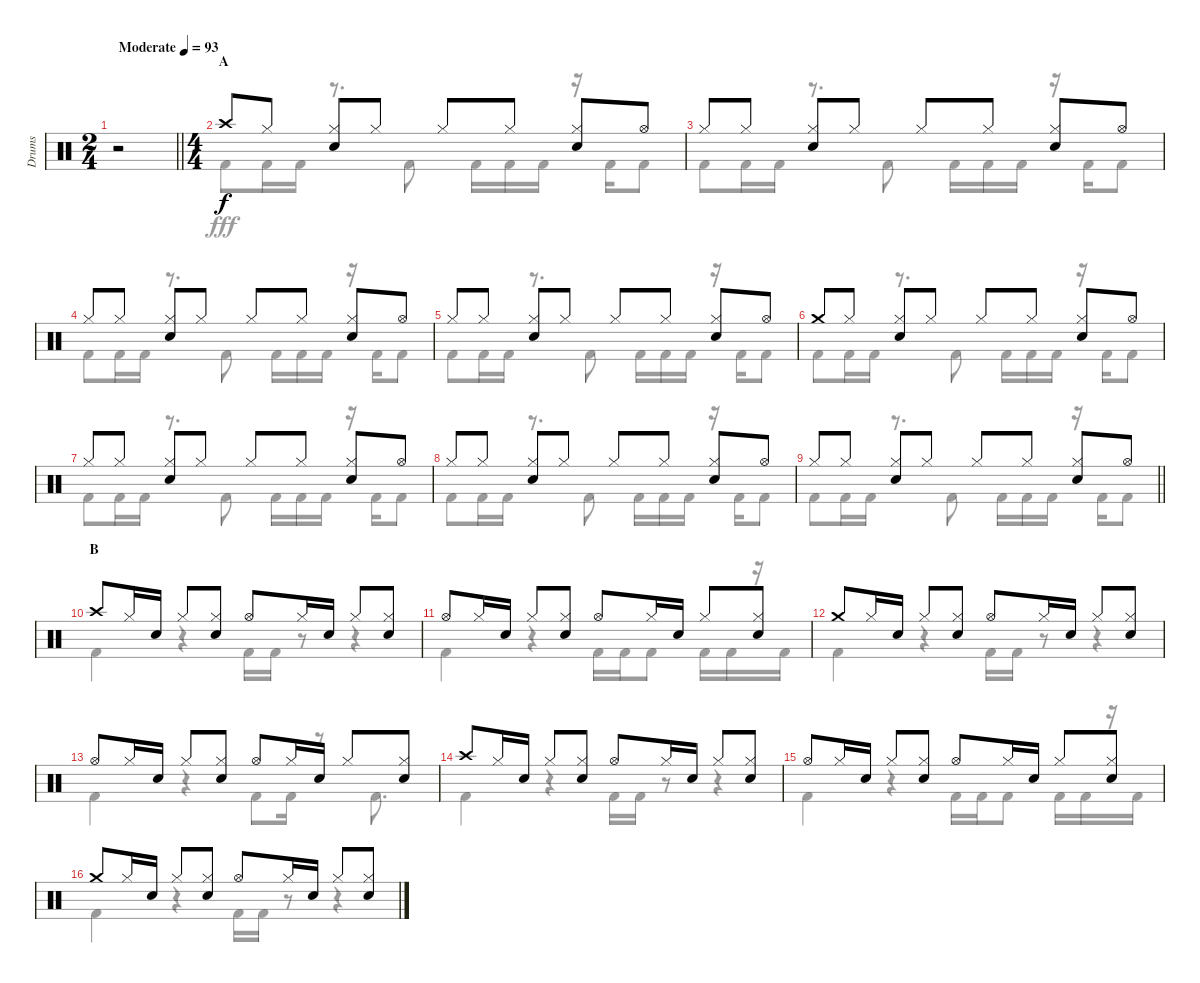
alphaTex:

\track ("Drums" "Drums") {instrument percussion}
\staff {score}
\articulation defaults
\voice
\ts (2 4)
\tempo (93 "Moderate")
\clef neutral
\barLineRight lightlight
\ks c
r.2{dy f} |
\ts (4 4)
\section ("" "A")
"Crash high (hit)".8 "Hi-Hat (closed)".8 ("Hi-Hat (closed)" "Snare (hit) 2").8 "Hi-Hat (closed)".8 "Hi-Hat (closed)".8 "Hi-Hat (closed)".8 ("Hi-Hat (closed)" "Snare (hit) 2").8 "Hi-Hat (open)".8 |
"Hi-Hat (closed)".8 "Hi-Hat (closed)".8 ("Hi-Hat (closed)" "Snare (hit) 2").8 "Hi-Hat (closed)".8 "Hi-Hat (closed)".8 "Hi-Hat (closed)".8 ("Hi-Hat (closed)" "Snare (hit) 2").8 "Hi-Hat (open)".8 |
"Hi-Hat (closed)".8 "Hi-Hat (closed)".8 ("Hi-Hat (closed)" "Snare (hit) 2").8 "Hi-Hat (closed)".8 "Hi-Hat (closed)".8 "Hi-Hat (closed)".8 ("Hi-Hat (closed)" "Snare (hit) 2").8 "Hi-Hat (open)".8 |
"Hi-Hat (closed)".8 "Hi-Hat (closed)".8 ("Hi-Hat (closed)" "Snare (hit) 2").8 "Hi-Hat (closed)".8 "Hi-Hat (closed)".8 "Hi-Hat (closed)".8 ("Hi-Hat (closed)" "Snare (hit) 2").8 "Hi-Hat (open)".8 |
"Crash medium (hit)".8 "Hi-Hat (closed)".8 ("Hi-Hat (closed)" "Snare (hit) 2").8 "Hi-Hat (closed)".8 "Hi-Hat (closed)".8 "Hi-Hat (closed)".8 ("Hi-Hat (closed)" "Snare (hit) 2").8 "Hi-Hat (open)".8 |
"Hi-Hat (closed)".8 "Hi-Hat (closed)".8 ("Hi-Hat (closed)" "Snare (hit) 2").8 "Hi-Hat (closed)".8 "Hi-Hat (closed)".8 "Hi-Hat (closed)".8 ("Hi-Hat (closed)" "Snare (hit) 2").8 "Hi-Hat (open)".8 |
"Hi-Hat (closed)".8 "Hi-Hat (closed)".8 ("Hi-Hat (closed)" "Snare (hit) 2").8 "Hi-Hat (closed)".8 "Hi-Hat (closed)".8 "Hi-Hat (closed)".8 ("Hi-Hat (closed)" "Snare (hit) 2").8 "Hi-Hat (open)".8 |
\barLineRight lightlight "Hi-Hat (closed)".8 "Hi-Hat (closed)".8
("Hi-Hat (closed)" "Snare (hit) 2").8 "Hi-Hat (closed)".8 "Hi-Hat (closed)".8 "Hi-Hat (closed)".8 ("Hi-Hat (closed)" "Snare (hit) 2").8 "Hi-Hat (open)".8 |
\section ("" "B")
"Crash high (hit)".8 "Hi-Hat (closed)".16 "Snare (hit) 2".16 "Hi-Hat (closed)".8 ("Hi-Hat (closed)" "Snare (hit) 2").8 "Hi-Hat (open)".8 "Hi-Hat (closed)".16 "Snare (hit) 2".16 "Hi-Hat (closed)".8 ("Hi-Hat (closed)" "Snare (hit) 2").8 |
"Hi-Hat (open)".8 "Hi-Hat (closed)".16 "Snare (hit) 2".16 "Hi-Hat (closed)".8 ("Hi-Hat (closed)" "Snare (hit) 2").8 "Hi-Hat (open)".8 "Hi-Hat (closed)".16 "Snare (hit) 2".16 "Hi-Hat (closed)".8 ("Hi-Hat (closed)" "Snare (hit) 2").8 |
"Crash medium (hit)".8 "Hi-Hat (closed)".16 "Snare (hit) 2".16 "Hi-Hat (closed)".8 ("Hi-Hat (closed)" "Snare (hit) 2").8 "Hi-Hat (open)".8 "Hi-Hat (closed)".16 "Snare (hit) 2".16 "Hi-Hat (closed)".8 ("Hi-Hat (closed)" "Snare (hit) 2").8 |
"Hi-Hat (open)".8 "Hi-Hat (closed)".16 "Snare (hit) 2".16 "Hi-Hat (closed)".8 ("Hi-Hat (closed)" "Snare (hit) 2").8 "Hi-Hat (open)".8 "Hi-Hat (closed)".16 "Snare (hit) 2".16 "Hi-Hat (closed)".8 ("Hi-Hat (closed)" "Snare (hit) 2").8 |
"Crash high (hit)".8 "Hi-Hat (closed)".16 "Snare (hit) 2".16 "Hi-Hat (closed)".8 ("Hi-Hat (closed)" "Snare (hit) 2").8 "Hi-Hat (open)".8 "Hi-Hat (closed)".16 "Snare (hit) 2".16 "Hi-Hat (closed)".8 ("Hi-Hat (closed)" "Snare (hit) 2").8 |
"Hi-Hat (open)".8 "Hi-Hat (closed)".16 "Snare (hit) 2".16 "Hi-Hat (closed)".8 ("Hi-Hat (closed)" "Snare (hit) 2").8 "Hi-Hat (open)".8 "Hi-Hat (closed)".16 "Snare (hit) 2".16 "Hi-Hat (closed)".8 ("Hi-Hat (closed)" "Snare (hit) 2").8 |
"Crash medium (hit)".8 "Hi-Hat (closed)".16 "Snare (hit) 2".16 "Hi-Hat (closed)".8 ("Hi-Hat (closed)" "Snare (hit) 2").8 "Hi-Hat (open)".8 "Hi-Hat (closed)".16 "Snare (hit) 2".16 "Hi-Hat (closed)".8 ("Hi-Hat (closed)" "Snare (hit) 2").8
\voice
\clef neutral
\ottava regular
\simile none
\barLineRight lightlight
\ks c
r.2{dy fff} |
"Kick (hit) 2".8 "Kick (hit) 2".16 "Kick (hit) 2".16 r.8{d} "Kick (hit) 2".8 "Kick (hit) 2".16 "Kick (hit) 2".16 "Kick (hit) 2".16 r.16 "Kick (hit) 2".16 "Kick (hit) 2".8 |
"Kick (hit) 2".8 "Kick (hit) 2".16 "Kick (hit) 2".16 r.8{d} "Kick (hit) 2".8 "Kick (hit) 2".16 "Kick (hit) 2".16 "Kick (hit) 2".16 r.16 "Kick (hit) 2".16 "Kick (hit) 2".8 |
"Kick (hit) 2".8 "Kick (hit) 2".16 "Kick (hit) 2".16 r.8{d} "Kick (hit) 2".8 "Kick (hit) 2".16 "Kick (hit) 2".16 "Kick (hit) 2".16 r.16 "Kick (hit) 2".16 "Kick (hit) 2".8 |
"Kick (hit) 2".8 "Kick (hit) 2".16 "Kick (hit) 2".16 r.8{d} "Kick (hit) 2".8 "Kick (hit) 2".16 "Kick (hit) 2".16 "Kick (hit) 2".16 r.16 "Kick (hit) 2".16 "Kick (hit) 2".8 |
"Kick (hit) 2".8 "Kick (hit) 2".16 "Kick (hit) 2".16 r.8{d} "Kick (hit) 2".8 "Kick (hit) 2".16 "Kick (hit) 2".16 "Kick (hit) 2".16 r.16 "Kick (hit) 2".16 "Kick (hit) 2".8 |
"Kick (hit) 2".8 "Kick (hit) 2".16 "Kick (hit) 2".16 r.8{d} "Kick (hit) 2".8 "Kick (hit) 2".16 "Kick (hit) 2".16 "Kick (hit) 2".16 r.16 "Kick (hit) 2".16 "Kick (hit) 2".8 |
"Kick (hit) 2".8 "Kick (hit) 2".16 "Kick (hit) 2".16 r.8{d} "Kick (hit) 2".8 "Kick (hit) 2".16 "Kick (hit) 2".16 "Kick (hit) 2".16 r.16 "Kick (hit) 2".16 "Kick (hit) 2".8 |
\barLineRight lightlight "Kick (hit) 2".8 "Kick (hit) 2".16 "Kick (hit) 2".16
r.8{d} "Kick (hit) 2".8 "Kick (hit) 2".16 "Kick (hit) 2".16 "Kick (hit) 2".16 r.16 "Kick (hit) 2".16 "Kick (hit) 2".8 |
"Kick (hit) 2".4 r.4 "Kick (hit) 2".16 "Kick (hit) 2".16 r.8 r.4 |
"Kick (hit) 2".4 r.4 "Kick (hit) 2".16 "Kick (hit) 2".16 "Kick (hit) 2".8 "Kick (hit) 2".16 "Kick (hit) 2".16 r.16 "Kick (hit) 2".16 |
"Kick (hit) 2".4 r.4 "Kick (hit) 2".16 "Kick (hit) 2".16 r.8 r.4 |
"Kick (hit) 2".4 r.4 "Kick (hit) 2".8 "Kick (hit) 2".16 r.8 "Kick (hit) 2".8{d} |
"Kick (hit) 2".4 r.4 "Kick (hit) 2".16 "Kick (hit) 2".16 r.8 r.4 |
"Kick (hit) 2".4 r.4 "Kick (hit) 2".16 "Kick (hit) 2".16 "Kick (hit) 2".8 "Kick (hit) 2".16 "Kick (hit) 2".16 r.16 "Kick (hit) 2".16 |
"Kick (hit) 2".4 r.4 "Kick (hit) 2".16 "Kick (hit) 2".16 r.8 r.4
